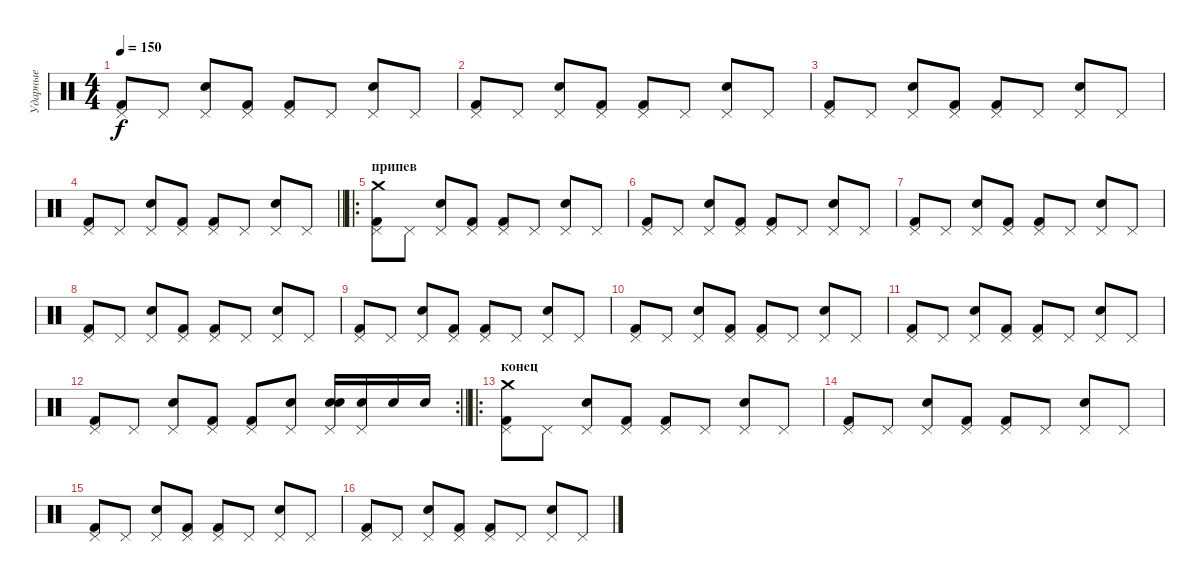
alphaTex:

\track ("Ударные" "Ударные") {instrument percussion}
\staff {score}
\articulation defaults
\ts (4 4)
\tempo 150
\clef neutral
\ks c
("Pedal Hi-Hat (hit)" "Kick (hit) 2").8{dy f} "Pedal Hi-Hat (hit)".8 ("Pedal Hi-Hat (hit)" "Electric Snare (hit)").8 ("Pedal Hi-Hat (hit)" "Kick (hit) 2").8 ("Pedal Hi-Hat (hit)" "Kick (hit) 2").8 "Pedal Hi-Hat (hit)".8 ("Pedal Hi-Hat (hit)" "Electric Snare (hit)").8 "Pedal Hi-Hat (hit)".8 |
("Pedal Hi-Hat (hit)" "Kick (hit) 2").8 "Pedal Hi-Hat (hit)".8 ("Pedal Hi-Hat (hit)" "Electric Snare (hit)").8 ("Pedal Hi-Hat (hit)" "Kick (hit) 2").8 ("Pedal Hi-Hat (hit)" "Kick (hit) 2").8 "Pedal Hi-Hat (hit)".8 ("Pedal Hi-Hat (hit)" "Electric Snare (hit)").8 "Pedal Hi-Hat (hit)".8 |
("Pedal Hi-Hat (hit)" "Kick (hit) 2").8 "Pedal Hi-Hat (hit)".8 ("Pedal Hi-Hat (hit)" "Electric Snare (hit)").8 ("Pedal Hi-Hat (hit)" "Kick (hit) 2").8 ("Pedal Hi-Hat (hit)" "Kick (hit) 2").8 "Pedal Hi-Hat (hit)".8 ("Pedal Hi-Hat (hit)" "Electric Snare (hit)").8 "Pedal Hi-Hat (hit)".8 |
\barLineRight lightlight
("Pedal Hi-Hat (hit)" "Kick (hit) 2").8 "Pedal Hi-Hat (hit)".8 ("Pedal Hi-Hat (hit)" "Electric Snare (hit)").8 ("Pedal Hi-Hat (hit)" "Kick (hit) 2").8 ("Pedal Hi-Hat (hit)" "Kick (hit) 2").8 "Pedal Hi-Hat (hit)".8 ("Pedal Hi-Hat (hit)" "Electric Snare (hit)").8 "Pedal Hi-Hat (hit)".8 |
\ro
\section ("" "припев")
("Crash medium (hit)" "Pedal Hi-Hat (hit)" "Kick (hit) 2").8 "Pedal Hi-Hat (hit)".8 ("Pedal Hi-Hat (hit)" "Electric Snare (hit)").8 ("Pedal Hi-Hat (hit)" "Kick (hit) 2").8 ("Pedal Hi-Hat (hit)" "Kick (hit) 2").8 "Pedal Hi-Hat (hit)".8 ("Pedal Hi-Hat (hit)" "Electric Snare (hit)").8 "Pedal Hi-Hat (hit)".8 |
("Pedal Hi-Hat (hit)" "Kick (hit) 2").8 "Pedal Hi-Hat (hit)".8 ("Pedal Hi-Hat (hit)" "Electric Snare (hit)").8 ("Pedal Hi-Hat (hit)" "Kick (hit) 2").8 ("Pedal Hi-Hat (hit)" "Kick (hit) 2").8 "Pedal Hi-Hat (hit)".8 ("Pedal Hi-Hat (hit)" "Electric Snare (hit)").8 "Pedal Hi-Hat (hit)".8 |
("Pedal Hi-Hat (hit)" "Kick (hit) 2").8 "Pedal Hi-Hat (hit)".8 ("Pedal Hi-Hat (hit)" "Electric Snare (hit)").8 ("Pedal Hi-Hat (hit)" "Kick (hit) 2").8 ("Pedal Hi-Hat (hit)" "Kick (hit) 2").8 "Pedal Hi-Hat (hit)".8 ("Pedal Hi-Hat (hit)" "Electric Snare (hit)").8 "Pedal Hi-Hat (hit)".8 |
("Pedal Hi-Hat (hit)" "Kick (hit) 2").8 "Pedal Hi-Hat (hit)".8 ("Pedal Hi-Hat (hit)" "Electric Snare (hit)").8 ("Pedal Hi-Hat (hit)" "Kick (hit) 2").8 ("Pedal Hi-Hat (hit)" "Kick (hit) 2").8 "Pedal Hi-Hat (hit)".8 ("Pedal Hi-Hat (hit)" "Electric Snare (hit)").8 "Pedal Hi-Hat (hit)".8 |
("Pedal Hi-Hat (hit)" "Kick (hit) 2").8 "Pedal Hi-Hat (hit)".8 ("Pedal Hi-Hat (hit)" "Electric Snare (hit)").8 ("Pedal Hi-Hat (hit)" "Kick (hit) 2").8 ("Pedal Hi-Hat (hit)" "Kick (hit) 2").8 "Pedal Hi-Hat (hit)".8 ("Pedal Hi-Hat (hit)" "Electric Snare (hit)").8 "Pedal Hi-Hat (hit)".8 |
("Pedal Hi-Hat (hit)" "Kick (hit) 2").8 "Pedal Hi-Hat (hit)".8 ("Pedal Hi-Hat (hit)" "Electric Snare (hit)").8 ("Pedal Hi-Hat (hit)" "Kick (hit) 2").8 ("Pedal Hi-Hat (hit)" "Kick (hit) 2").8 "Pedal Hi-Hat (hit)".8 ("Pedal Hi-Hat (hit)" "Electric Snare (hit)").8 "Pedal Hi-Hat (hit)".8 |
("Pedal Hi-Hat (hit)" "Kick (hit) 2").8 "Pedal Hi-Hat (hit)".8 ("Pedal Hi-Hat (hit)" "Electric Snare (hit)").8 ("Pedal Hi-Hat (hit)" "Kick (hit) 2").8 ("Pedal Hi-Hat (hit)" "Kick (hit) 2").8 "Pedal Hi-Hat (hit)".8 ("Pedal Hi-Hat (hit)" "Electric Snare (hit)").8 "Pedal Hi-Hat (hit)".8 |
\rc 2
\barLineRight lightlight
("Pedal Hi-Hat (hit)" "Kick (hit) 2").8 "Pedal Hi-Hat (hit)".8 ("Pedal Hi-Hat (hit)" "Electric Snare (hit)").8 ("Pedal Hi-Hat (hit)" "Kick (hit) 2").8 ("Pedal Hi-Hat (hit)" "Kick (hit) 2").8 ("Pedal Hi-Hat (hit)" "Electric Snare (hit)").8 ("Electric Snare (hit)" "Pedal Hi-Hat (hit)" "Electric Snare (hit)").16 ("Electric Snare (hit)" "Pedal Hi-Hat (hit)").16 "Electric Snare (hit)".16 "Electric Snare (hit)".16 |
\ro
\section ("" "конец")
("Crash medium (hit)" "Pedal Hi-Hat (hit)" "Kick (hit) 2").8 "Pedal Hi-Hat (hit)".8 ("Pedal Hi-Hat (hit)" "Electric Snare (hit)").8 ("Pedal Hi-Hat (hit)" "Kick (hit) 2").8 ("Pedal Hi-Hat (hit)" "Kick (hit) 2").8 "Pedal Hi-Hat (hit)".8 ("Pedal Hi-Hat (hit)" "Electric Snare (hit)").8 "Pedal Hi-Hat (hit)".8 |
("Pedal Hi-Hat (hit)" "Kick (hit) 2").8 "Pedal Hi-Hat (hit)".8 ("Pedal Hi-Hat (hit)" "Electric Snare (hit)").8 ("Pedal Hi-Hat (hit)" "Kick (hit) 2").8 ("Pedal Hi-Hat (hit)" "Kick (hit) 2").8 "Pedal Hi-Hat (hit)".8 ("Pedal Hi-Hat (hit)" "Electric Snare (hit)").8 "Pedal Hi-Hat (hit)".8 |
("Pedal Hi-Hat (hit)" "Kick (hit) 2").8 "Pedal Hi-Hat (hit)".8 ("Pedal Hi-Hat (hit)" "Electric Snare (hit)").8 ("Pedal Hi-Hat (hit)" "Kick (hit) 2").8 ("Pedal Hi-Hat (hit)" "Kick (hit) 2").8 "Pedal Hi-Hat (hit)".8 ("Pedal Hi-Hat (hit)" "Electric Snare (hit)").8 "Pedal Hi-Hat (hit)".8 |
("Pedal Hi-Hat (hit)" "Kick (hit) 2").8 "Pedal Hi-Hat (hit)".8 ("Pedal Hi-Hat (hit)" "Electric Snare (hit)").8 ("Pedal Hi-Hat (hit)" "Kick (hit) 2").8 ("Pedal Hi-Hat (hit)" "Kick (hit) 2").8 "Pedal Hi-Hat (hit)".8 ("Pedal Hi-Hat (hit)" "Electric Snare (hit)").8 "Pedal Hi-Hat (hit)".8
